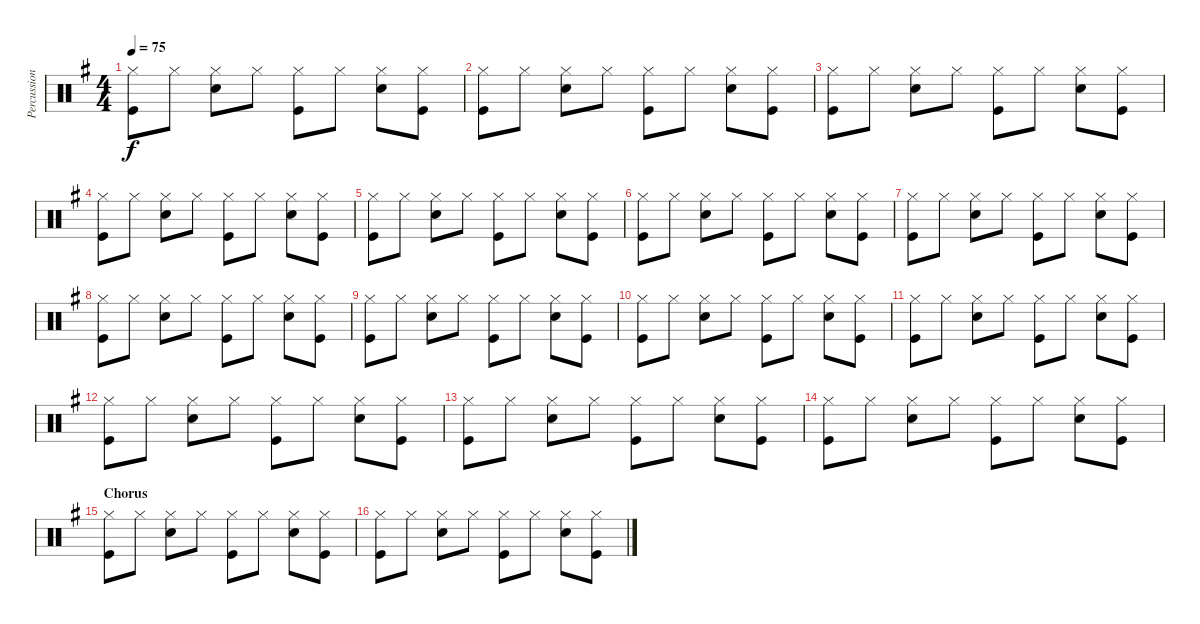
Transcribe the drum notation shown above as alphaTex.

\track ("Percussion" "Percussion") {instrument percussion}
\staff {score}
\articulation defaults
\ts (4 4)
\tempo 75
\clef neutral
\ks g
("Hi-Hat (closed)" "Kick (hit)").8{dy f} "Hi-Hat (closed)".8 ("Hi-Hat (closed)" "Snare (hit) 2").8 "Hi-Hat (closed)".8 ("Hi-Hat (closed)" "Kick (hit)").8 "Hi-Hat (closed)".8 ("Hi-Hat (closed)" "Snare (hit) 2").8 ("Hi-Hat (closed)" "Kick (hit)").8 |
("Hi-Hat (closed)" "Kick (hit)").8 "Hi-Hat (closed)".8 ("Hi-Hat (closed)" "Snare (hit) 2").8 "Hi-Hat (closed)".8 ("Hi-Hat (closed)" "Kick (hit)").8 "Hi-Hat (closed)".8 ("Hi-Hat (closed)" "Snare (hit) 2").8 ("Hi-Hat (closed)" "Kick (hit)").8 |
("Hi-Hat (closed)" "Kick (hit)").8 "Hi-Hat (closed)".8 ("Hi-Hat (closed)" "Snare (hit) 2").8 "Hi-Hat (closed)".8 ("Hi-Hat (closed)" "Kick (hit)").8 "Hi-Hat (closed)".8 ("Hi-Hat (closed)" "Snare (hit) 2").8 ("Hi-Hat (closed)" "Kick (hit)").8 |
("Hi-Hat (closed)" "Kick (hit)").8 "Hi-Hat (closed)".8 ("Hi-Hat (closed)" "Snare (hit) 2").8 "Hi-Hat (closed)".8 ("Hi-Hat (closed)" "Kick (hit)").8 "Hi-Hat (closed)".8 ("Hi-Hat (closed)" "Snare (hit) 2").8 ("Hi-Hat (closed)" "Kick (hit)").8 |
("Hi-Hat (closed)" "Kick (hit)").8 "Hi-Hat (closed)".8 ("Hi-Hat (closed)" "Snare (hit) 2").8 "Hi-Hat (closed)".8 ("Hi-Hat (closed)" "Kick (hit)").8 "Hi-Hat (closed)".8 ("Hi-Hat (closed)" "Snare (hit) 2").8 ("Hi-Hat (closed)" "Kick (hit)").8 |
("Hi-Hat (closed)" "Kick (hit)").8 "Hi-Hat (closed)".8 ("Hi-Hat (closed)" "Snare (hit) 2").8 "Hi-Hat (closed)".8 ("Hi-Hat (closed)" "Kick (hit)").8 "Hi-Hat (closed)".8 ("Hi-Hat (closed)" "Snare (hit) 2").8 ("Hi-Hat (closed)" "Kick (hit)").8 |
("Hi-Hat (closed)" "Kick (hit)").8 "Hi-Hat (closed)".8 ("Hi-Hat (closed)" "Snare (hit) 2").8 "Hi-Hat (closed)".8 ("Hi-Hat (closed)" "Kick (hit)").8 "Hi-Hat (closed)".8 ("Hi-Hat (closed)" "Snare (hit) 2").8 ("Hi-Hat (closed)" "Kick (hit)").8 |
("Hi-Hat (closed)" "Kick (hit)").8 "Hi-Hat (closed)".8 ("Hi-Hat (closed)" "Snare (hit) 2").8 "Hi-Hat (closed)".8 ("Hi-Hat (closed)" "Kick (hit)").8 "Hi-Hat (closed)".8 ("Hi-Hat (closed)" "Snare (hit) 2").8 ("Hi-Hat (closed)" "Kick (hit)").8 |
("Hi-Hat (closed)" "Kick (hit)").8 "Hi-Hat (closed)".8 ("Hi-Hat (closed)" "Snare (hit) 2").8 "Hi-Hat (closed)".8 ("Hi-Hat (closed)" "Kick (hit)").8 "Hi-Hat (closed)".8 ("Hi-Hat (closed)" "Snare (hit) 2").8 ("Hi-Hat (closed)" "Kick (hit)").8 |
("Hi-Hat (closed)" "Kick (hit)").8 "Hi-Hat (closed)".8 ("Hi-Hat (closed)" "Snare (hit) 2").8 "Hi-Hat (closed)".8 ("Hi-Hat (closed)" "Kick (hit)").8 "Hi-Hat (closed)".8 ("Hi-Hat (closed)" "Snare (hit) 2").8 ("Hi-Hat (closed)" "Kick (hit)").8 |
("Hi-Hat (closed)" "Kick (hit)").8 "Hi-Hat (closed)".8 ("Hi-Hat (closed)" "Snare (hit) 2").8 "Hi-Hat (closed)".8 ("Hi-Hat (closed)" "Kick (hit)").8 "Hi-Hat (closed)".8 ("Hi-Hat (closed)" "Snare (hit) 2").8 ("Hi-Hat (closed)" "Kick (hit)").8 |
("Hi-Hat (closed)" "Kick (hit)").8 "Hi-Hat (closed)".8 ("Hi-Hat (closed)" "Snare (hit) 2").8 "Hi-Hat (closed)".8 ("Hi-Hat (closed)" "Kick (hit)").8 "Hi-Hat (closed)".8 ("Hi-Hat (closed)" "Snare (hit) 2").8 ("Hi-Hat (closed)" "Kick (hit)").8 |
("Hi-Hat (closed)" "Kick (hit)").8 "Hi-Hat (closed)".8 ("Hi-Hat (closed)" "Snare (hit) 2").8 "Hi-Hat (closed)".8 ("Hi-Hat (closed)" "Kick (hit)").8 "Hi-Hat (closed)".8 ("Hi-Hat (closed)" "Snare (hit) 2").8 ("Hi-Hat (closed)" "Kick (hit)").8 |
("Hi-Hat (closed)" "Kick (hit)").8 "Hi-Hat (closed)".8 ("Hi-Hat (closed)" "Snare (hit) 2").8 "Hi-Hat (closed)".8 ("Hi-Hat (closed)" "Kick (hit)").8 "Hi-Hat (closed)".8 ("Hi-Hat (closed)" "Snare (hit) 2").8 ("Hi-Hat (closed)" "Kick (hit)").8 |
\section ("" "Chorus")
("Hi-Hat (closed)" "Kick (hit)").8 "Hi-Hat (closed)".8 ("Hi-Hat (closed)" "Snare (hit) 2").8 "Hi-Hat (closed)".8 ("Hi-Hat (closed)" "Kick (hit)").8 "Hi-Hat (closed)".8 ("Hi-Hat (closed)" "Snare (hit) 2").8 ("Hi-Hat (closed)" "Kick (hit)").8 |
("Hi-Hat (closed)" "Kick (hit)").8 "Hi-Hat (closed)".8 ("Hi-Hat (closed)" "Snare (hit) 2").8 "Hi-Hat (closed)".8 ("Hi-Hat (closed)" "Kick (hit)").8 "Hi-Hat (closed)".8 ("Hi-Hat (closed)" "Snare (hit) 2").8 ("Hi-Hat (closed)" "Kick (hit)").8
